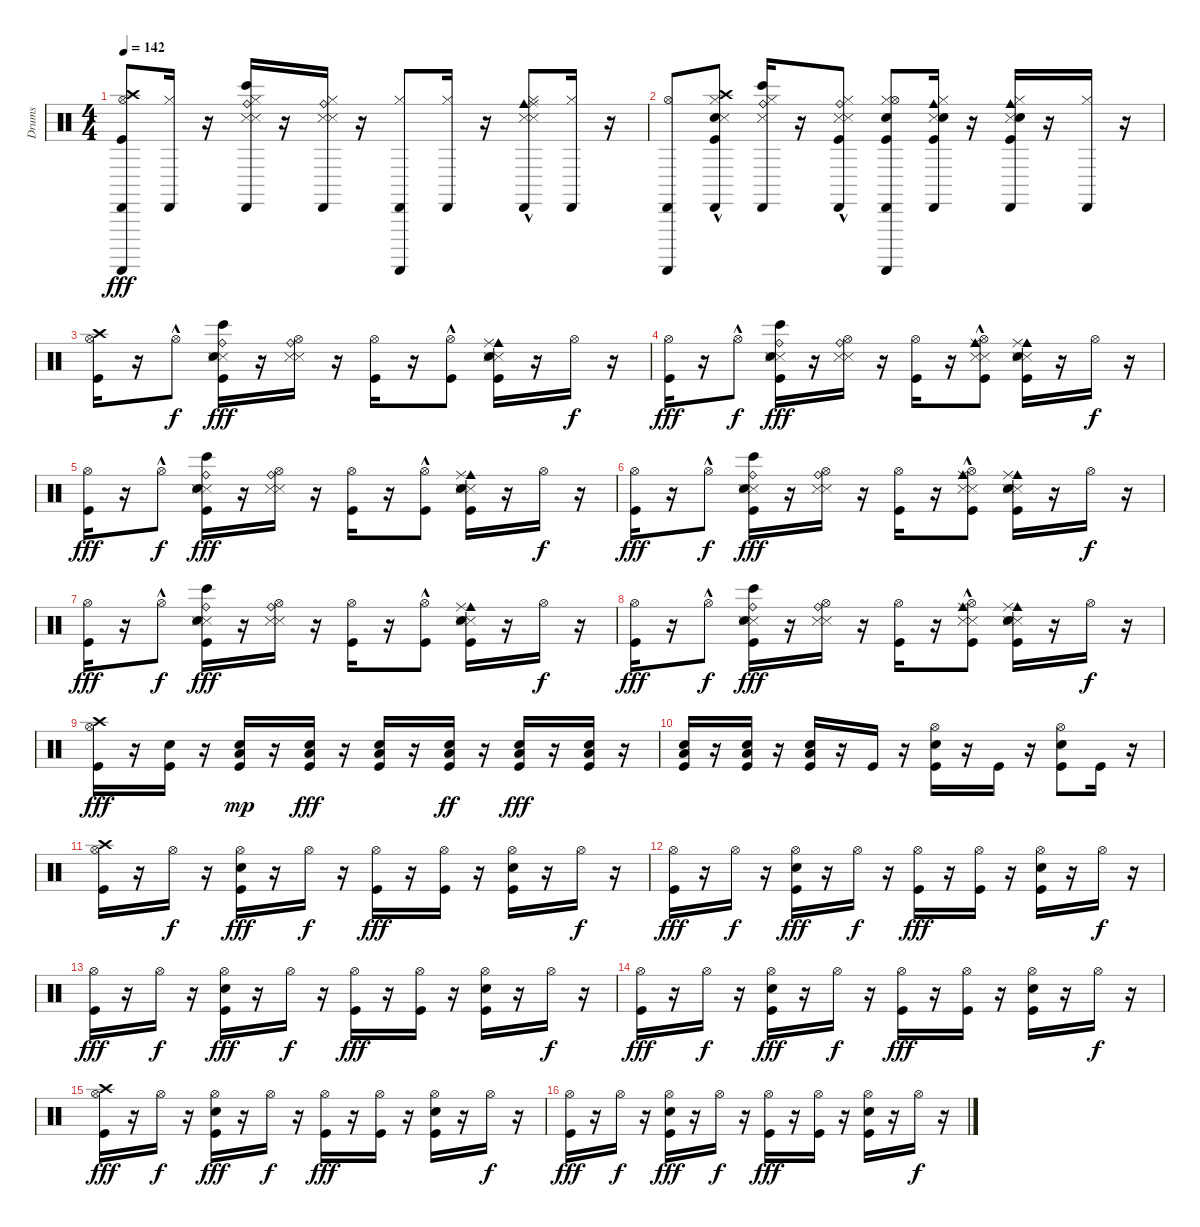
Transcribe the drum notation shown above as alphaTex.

\track ("Drums" "Drums") {instrument percussion}
\staff {score}
\articulation defaults
\ts (4 4)
\tempo 142
\clef neutral
\ks c
("Cabasa (hit)" "Hi-Hat (open)" "Guiro (scrap-return)" "Crash high (hit)" "Kick (hit)").8{dy fff} ("Hi-Hat (closed)" "Cabasa (hit)").16 r.16 ("Hi-Hat (closed)" "Cabasa (hit)" "Bongo High (hit)" "Ride (bell)" "Metronome (hit)" "Snare (side stick) 3").16 r.16 ("Hi-Hat (closed)" "Cabasa (hit)" "Ride (bell)" "Metronome (hit)" "Snare (side stick) 3").16 r.16 ("Guiro (scrap-return)" "Hi-Hat (closed)" "Cabasa (hit)").8 ("Hi-Hat (closed)" "Cabasa (hit)").16 r.16 ("Hi-Hat (closed)" "Cabasa (hit)" "Cowbell medium (hit)"{hac} "Ride (middle)" "Metronome (hit)" "Snare (side stick) 3").8 ("Hi-Hat (closed)" "Cabasa (hit)").16 r.16 |
("Cabasa (hit)" "Hi-Hat (open)" "Guiro (scrap-return)").8 ("Hi-Hat (closed)" "Cabasa (hit)" "Snare (hit) 2" "Kick (hit)" "Crash high (hit)"{hac} "Metronome (hit)").8 ("Hi-Hat (closed)" "Cabasa (hit)" "Bongo High (hit)" "Ride (bell)" "Snare (side stick) 3").16 r.16 ("Hi-Hat (closed)" "Cabasa (hit)" "Ride (bell)" "Snare (side stick) 3" "Kick (hit)" "Metronome (hit)"{hac}).8 ("Guiro (scrap-return)" "Hi-Hat (closed)" "Cabasa (hit)" "Snare (hit) 2" "Kick (hit)" "Hi-Hat (open)").8 ("Hi-Hat (closed)" "Cabasa (hit)" "Cowbell medium (hit)" "Snare (side stick) 3" "Snare (hit) 2" "Kick (hit)").16 r.16 ("Hi-Hat (closed)" "Cabasa (hit)" "Cowbell medium (hit)" "Snare (side stick) 3" "Snare (hit) 2" "Kick (hit)").16 r.16 ("Hi-Hat (closed)" "Cabasa (hit)").16 r.16 |
("Hi-Hat (open)" "Kick (hit)" "Crash high (hit)").16 r.16 "Hi-Hat (open)"{hac}.8{dy f} ("Bongo High (hit)" "Ride (bell)" "Metronome (hit)" "Snare (side stick) 3" "Snare (hit) 2" "Kick (hit)").16{dy fff} r.16 ("Ride (bell)" "Metronome (hit)" "Snare (side stick) 3" "Hi-Hat (open)").16 r.16 ("Kick (hit)" "Hi-Hat (open)").16 r.16 ("Kick (hit)" "Hi-Hat (open)"{hac}).8 ("Cowbell medium (hit)" "Ride (middle)" "Metronome (hit)" "Snare (side stick) 3" "Kick (hit)" "Snare (hit) 2").16 r.16 "Hi-Hat (open)".16{dy f} r.16 |
("Hi-Hat (open)" "Kick (hit)").16{dy fff} r.16 "Hi-Hat (open)"{hac}.8{dy f} ("Bongo High (hit)" "Ride (bell)" "Metronome (hit)" "Snare (side stick) 3" "Snare (hit) 2" "Kick (hit)").16{dy fff} r.16 ("Ride (bell)" "Metronome (hit)" "Snare (side stick) 3" "Hi-Hat (open)").16 r.16 ("Kick (hit)" "Hi-Hat (open)").16 r.16 ("Ride (middle)" "Cowbell medium (hit)" "Snare (side stick) 3" "Metronome (hit)" "Kick (hit)" "Hi-Hat (open)"{hac}).8 ("Cowbell medium (hit)" "Ride (middle)" "Metronome (hit)" "Snare (side stick) 3" "Kick (hit)" "Snare (hit) 2").16 r.16 "Hi-Hat (open)".16{dy f} r.16 |
("Kick (hit)" "Hi-Hat (open)").16{dy fff} r.16 "Hi-Hat (open)"{hac}.8{dy f} ("Bongo High (hit)" "Ride (bell)" "Metronome (hit)" "Snare (side stick) 3" "Snare (hit) 2" "Kick (hit)").16{dy fff} r.16 ("Ride (bell)" "Metronome (hit)" "Snare (side stick) 3" "Hi-Hat (open)").16 r.16 ("Kick (hit)" "Hi-Hat (open)").16 r.16 ("Kick (hit)" "Hi-Hat (open)"{hac}).8 ("Cowbell medium (hit)" "Ride (middle)" "Metronome (hit)" "Snare (side stick) 3" "Kick (hit)" "Snare (hit) 2").16 r.16 "Hi-Hat (open)".16{dy f} r.16 |
("Hi-Hat (open)" "Kick (hit)").16{dy fff} r.16 "Hi-Hat (open)"{hac}.8{dy f} ("Bongo High (hit)" "Ride (bell)" "Metronome (hit)" "Snare (side stick) 3" "Snare (hit) 2" "Kick (hit)").16{dy fff} r.16 ("Ride (bell)" "Metronome (hit)" "Snare (side stick) 3" "Hi-Hat (open)").16 r.16 ("Kick (hit)" "Hi-Hat (open)").16 r.16 ("Ride (middle)" "Cowbell medium (hit)" "Snare (side stick) 3" "Metronome (hit)" "Kick (hit)" "Hi-Hat (open)"{hac}).8 ("Cowbell medium (hit)" "Ride (middle)" "Metronome (hit)" "Snare (side stick) 3" "Kick (hit)" "Snare (hit) 2").16 r.16 "Hi-Hat (open)".16{dy f} r.16 |
("Kick (hit)" "Hi-Hat (open)").16{dy fff} r.16 "Hi-Hat (open)"{hac}.8{dy f} ("Bongo High (hit)" "Ride (bell)" "Metronome (hit)" "Snare (side stick) 3" "Snare (hit) 2" "Kick (hit)").16{dy fff} r.16 ("Ride (bell)" "Metronome (hit)" "Snare (side stick) 3" "Hi-Hat (open)").16 r.16 ("Kick (hit)" "Hi-Hat (open)").16 r.16 ("Kick (hit)" "Hi-Hat (open)"{hac}).8 ("Cowbell medium (hit)" "Ride (middle)" "Metronome (hit)" "Snare (side stick) 3" "Kick (hit)" "Snare (hit) 2").16 r.16 "Hi-Hat (open)".16{dy f} r.16 |
("Hi-Hat (open)" "Kick (hit)").16{dy fff} r.16 "Hi-Hat (open)"{hac}.8{dy f} ("Bongo High (hit)" "Ride (bell)" "Metronome (hit)" "Snare (side stick) 3" "Snare (hit) 2" "Kick (hit)").16{dy fff} r.16 ("Ride (bell)" "Metronome (hit)" "Snare (side stick) 3" "Hi-Hat (open)").16 r.16 ("Kick (hit)" "Hi-Hat (open)").16 r.16 ("Ride (middle)" "Cowbell medium (hit)" "Snare (side stick) 3" "Metronome (hit)" "Kick (hit)" "Hi-Hat (open)"{hac}).8 ("Cowbell medium (hit)" "Ride (middle)" "Metronome (hit)" "Snare (side stick) 3" "Kick (hit)" "Snare (hit) 2").16 r.16 "Hi-Hat (open)".16{dy f} r.16 |
("Hi-Hat (open)" "Crash high (hit)" "Kick (hit)").16{dy fff} r.16 ("Snare (hit) 2" "Kick (hit)").16 r.16 ("Snare (hit) 2" "Kick (hit)" "Low Floor Tom (hit)").16{dy mp} r.16 ("Snare (hit) 2" "Kick (hit)" "Low Floor Tom (hit)").16{dy fff} r.16 ("Snare (hit) 2" "Kick (hit)" "Low Floor Tom (hit)").16 r.16 ("Snare (hit) 2" "Kick (hit)" "Low Floor Tom (hit)").16{dy ff} r.16 ("Snare (hit) 2" "Kick (hit)" "Low Floor Tom (hit)").16{dy fff} r.16 ("Snare (hit) 2" "Kick (hit)" "Low Floor Tom (hit)").16 r.16 |
("Snare (hit) 2" "Kick (hit)" "Low Floor Tom (hit)").16 r.16 ("Snare (hit) 2" "Kick (hit)" "Low Floor Tom (hit)").16 r.16 ("Snare (hit) 2" "Kick (hit)" "Low Floor Tom (hit)").16 r.16 "Kick (hit)".16 r.16 ("Snare (hit) 2" "Kick (hit)" "Hi-Hat (open)").16 r.16 "Kick (hit)".16 r.16 ("Snare (hit) 2" "Kick (hit)" "Hi-Hat (open)").8 "Kick (hit)".16 r.16 |
("Kick (hit)" "Hi-Hat (open)" "Crash high (hit)").16 r.16 "Hi-Hat (open)".16{dy f} r.16 ("Snare (hit) 2" "Kick (hit)" "Hi-Hat (open)").16{dy fff} r.16 "Hi-Hat (open)".16{dy f} r.16 ("Kick (hit)" "Hi-Hat (open)").16{dy fff} r.16 ("Kick (hit)" "Hi-Hat (open)").16 r.16 ("Kick (hit)" "Snare (hit) 2" "Hi-Hat (open)").16 r.16 "Hi-Hat (open)".16{dy f} r.16 |
("Kick (hit)" "Hi-Hat (open)").16{dy fff} r.16 "Hi-Hat (open)".16{dy f} r.16 ("Snare (hit) 2" "Kick (hit)" "Hi-Hat (open)").16{dy fff} r.16 "Hi-Hat (open)".16{dy f} r.16 ("Kick (hit)" "Hi-Hat (open)").16{dy fff} r.16 ("Kick (hit)" "Hi-Hat (open)").16 r.16 ("Kick (hit)" "Snare (hit) 2" "Hi-Hat (open)").16 r.16 "Hi-Hat (open)".16{dy f} r.16 |
("Hi-Hat (open)" "Kick (hit)").16{dy fff} r.16 "Hi-Hat (open)".16{dy f} r.16 ("Snare (hit) 2" "Kick (hit)" "Hi-Hat (open)").16{dy fff} r.16 "Hi-Hat (open)".16{dy f} r.16 ("Kick (hit)" "Hi-Hat (open)").16{dy fff} r.16 ("Kick (hit)" "Hi-Hat (open)").16 r.16 ("Kick (hit)" "Snare (hit) 2" "Hi-Hat (open)").16 r.16 "Hi-Hat (open)".16{dy f} r.16 |
("Hi-Hat (open)" "Kick (hit)").16{dy fff} r.16 "Hi-Hat (open)".16{dy f} r.16 ("Snare (hit) 2" "Kick (hit)" "Hi-Hat (open)").16{dy fff} r.16 "Hi-Hat (open)".16{dy f} r.16 ("Kick (hit)" "Hi-Hat (open)").16{dy fff} r.16 ("Kick (hit)" "Hi-Hat (open)").16 r.16 ("Kick (hit)" "Snare (hit) 2" "Hi-Hat (open)").16 r.16 "Hi-Hat (open)".16{dy f} r.16 |
("Hi-Hat (open)" "Kick (hit)" "Crash high (hit)").16{dy fff} r.16 "Hi-Hat (open)".16{dy f} r.16 ("Snare (hit) 2" "Kick (hit)" "Hi-Hat (open)").16{dy fff} r.16 "Hi-Hat (open)".16{dy f} r.16 ("Kick (hit)" "Hi-Hat (open)").16{dy fff} r.16 ("Kick (hit)" "Hi-Hat (open)").16 r.16 ("Kick (hit)" "Snare (hit) 2" "Hi-Hat (open)").16 r.16 "Hi-Hat (open)".16{dy f} r.16 |
("Hi-Hat (open)" "Kick (hit)").16{dy fff} r.16 "Hi-Hat (open)".16{dy f} r.16 ("Snare (hit) 2" "Kick (hit)" "Hi-Hat (open)").16{dy fff} r.16 "Hi-Hat (open)".16{dy f} r.16 ("Kick (hit)" "Hi-Hat (open)").16{dy fff} r.16 ("Kick (hit)" "Hi-Hat (open)").16 r.16 ("Kick (hit)" "Snare (hit) 2" "Hi-Hat (open)").16 r.16 "Hi-Hat (open)".16{dy f} r.16
